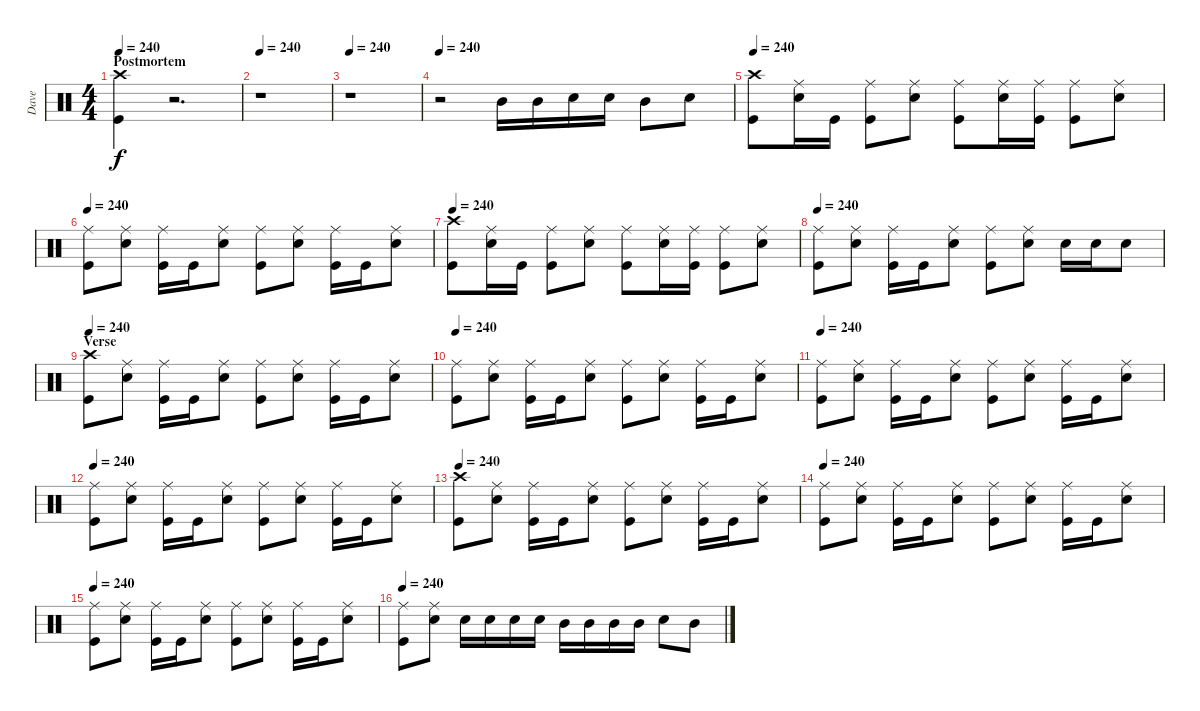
\track ("Dave" "Dave") {instrument percussion}
\staff {score}
\articulation defaults
\ts (4 4)
\section ("" "Postmortem")
\tempo 240
\clef neutral
\ks c
("Crash high (hit)" "Kick (hit)").4{dy f} r.2{d} |
\tempo 240
r.1 |
\tempo 240
r.1 |
\tempo 240
r.2 "Mid Tom (hit)".16 "Mid Tom (hit)".16 "Snare (hit) 2".16 "Snare (hit) 2".16 "Mid Tom (hit)".8 "Snare (hit) 2".8 |
\tempo 240
("Crash high (hit)" "Kick (hit)").8 ("Ride (middle)" "Snare (hit) 2").16 "Kick (hit)".16 ("Ride (middle)" "Kick (hit)").8 ("Ride (middle)" "Snare (hit) 2").8 ("Ride (middle)" "Kick (hit)").8 ("Ride (middle)" "Snare (hit) 2").16 ("Ride (middle)" "Kick (hit)").16 ("Ride (middle)" "Kick (hit)").8 ("Ride (middle)" "Snare (hit) 2").8 |
\tempo 240
("Ride (middle)" "Kick (hit)").8 ("Ride (middle)" "Snare (hit) 2").8 ("Ride (middle)" "Kick (hit)").16 "Kick (hit)".16 ("Ride (middle)" "Snare (hit) 2").8 ("Ride (middle)" "Kick (hit)").8 ("Ride (middle)" "Snare (hit) 2").8 ("Ride (middle)" "Kick (hit)").16 "Kick (hit)".16 ("Ride (middle)" "Snare (hit) 2").8 |
\tempo 240
("Crash high (hit)" "Kick (hit)").8 ("Ride (middle)" "Snare (hit) 2").16 "Kick (hit)".16 ("Ride (middle)" "Kick (hit)").8 ("Ride (middle)" "Snare (hit) 2").8 ("Ride (middle)" "Kick (hit)").8 ("Ride (middle)" "Snare (hit) 2").16 ("Ride (middle)" "Kick (hit)").16 ("Ride (middle)" "Kick (hit)").8 ("Ride (middle)" "Snare (hit) 2").8 |
\tempo 240
("Ride (middle)" "Kick (hit)").8 ("Ride (middle)" "Snare (hit) 2").8 ("Ride (middle)" "Kick (hit)").16 "Kick (hit)".16 ("Ride (middle)" "Snare (hit) 2").8 ("Ride (middle)" "Kick (hit)").8 ("Ride (middle)" "Snare (hit) 2").8 "Snare (hit) 2".16 "Snare (hit) 2".16 "Snare (hit) 2".8 |
\section ("" "Verse")
\tempo 240
("Crash high (hit)" "Kick (hit)").8 ("Ride (middle)" "Snare (hit) 2").8 ("Ride (middle)" "Kick (hit)").16 "Kick (hit)".16 ("Ride (middle)" "Snare (hit) 2").8 ("Ride (middle)" "Kick (hit)").8 ("Ride (middle)" "Snare (hit) 2").8 ("Ride (middle)" "Kick (hit)").16 "Kick (hit)".16 ("Ride (middle)" "Snare (hit) 2").8 |
\tempo 240
("Ride (middle)" "Kick (hit)").8 ("Ride (middle)" "Snare (hit) 2").8 ("Ride (middle)" "Kick (hit)").16 "Kick (hit)".16 ("Ride (middle)" "Snare (hit) 2").8 ("Ride (middle)" "Kick (hit)").8 ("Ride (middle)" "Snare (hit) 2").8 ("Ride (middle)" "Kick (hit)").16 "Kick (hit)".16 ("Ride (middle)" "Snare (hit) 2").8 |
\tempo 240
("Ride (middle)" "Kick (hit)").8 ("Ride (middle)" "Snare (hit) 2").8 ("Ride (middle)" "Kick (hit)").16 "Kick (hit)".16 ("Ride (middle)" "Snare (hit) 2").8 ("Ride (middle)" "Kick (hit)").8 ("Ride (middle)" "Snare (hit) 2").8 ("Ride (middle)" "Kick (hit)").16 "Kick (hit)".16 ("Ride (middle)" "Snare (hit) 2").8 |
\tempo 240
("Ride (middle)" "Kick (hit)").8 ("Ride (middle)" "Snare (hit) 2").8 ("Ride (middle)" "Kick (hit)").16 "Kick (hit)".16 ("Ride (middle)" "Snare (hit) 2").8 ("Ride (middle)" "Kick (hit)").8 ("Ride (middle)" "Snare (hit) 2").8 ("Ride (middle)" "Kick (hit)").16 "Kick (hit)".16 ("Ride (middle)" "Snare (hit) 2").8 |
\tempo 240
("Crash high (hit)" "Kick (hit)").8 ("Ride (middle)" "Snare (hit) 2").8 ("Ride (middle)" "Kick (hit)").16 "Kick (hit)".16 ("Ride (middle)" "Snare (hit) 2").8 ("Ride (middle)" "Kick (hit)").8 ("Ride (middle)" "Snare (hit) 2").8 ("Ride (middle)" "Kick (hit)").16 "Kick (hit)".16 ("Ride (middle)" "Snare (hit) 2").8 |
\tempo 240
("Ride (middle)" "Kick (hit)").8 ("Ride (middle)" "Snare (hit) 2").8 ("Ride (middle)" "Kick (hit)").16 "Kick (hit)".16 ("Ride (middle)" "Snare (hit) 2").8 ("Ride (middle)" "Kick (hit)").8 ("Ride (middle)" "Snare (hit) 2").8 ("Ride (middle)" "Kick (hit)").16 "Kick (hit)".16 ("Ride (middle)" "Snare (hit) 2").8 |
\tempo 240
("Ride (middle)" "Kick (hit)").8 ("Ride (middle)" "Snare (hit) 2").8 ("Ride (middle)" "Kick (hit)").16 "Kick (hit)".16 ("Ride (middle)" "Snare (hit) 2").8 ("Ride (middle)" "Kick (hit)").8 ("Ride (middle)" "Snare (hit) 2").8 ("Ride (middle)" "Kick (hit)").16 "Kick (hit)".16 ("Ride (middle)" "Snare (hit) 2").8 |
\tempo 240
("Ride (middle)" "Kick (hit)").8 ("Ride (middle)" "Snare (hit) 2").8 "Snare (hit) 2".16 "Snare (hit) 2".16 "Snare (hit) 2".16 "Snare (hit) 2".16 "Mid Tom (hit)".16 "Mid Tom (hit)".16 "Mid Tom (hit)".16 "Mid Tom (hit)".16 "Snare (hit) 2".8 "Mid Tom (hit)".8
